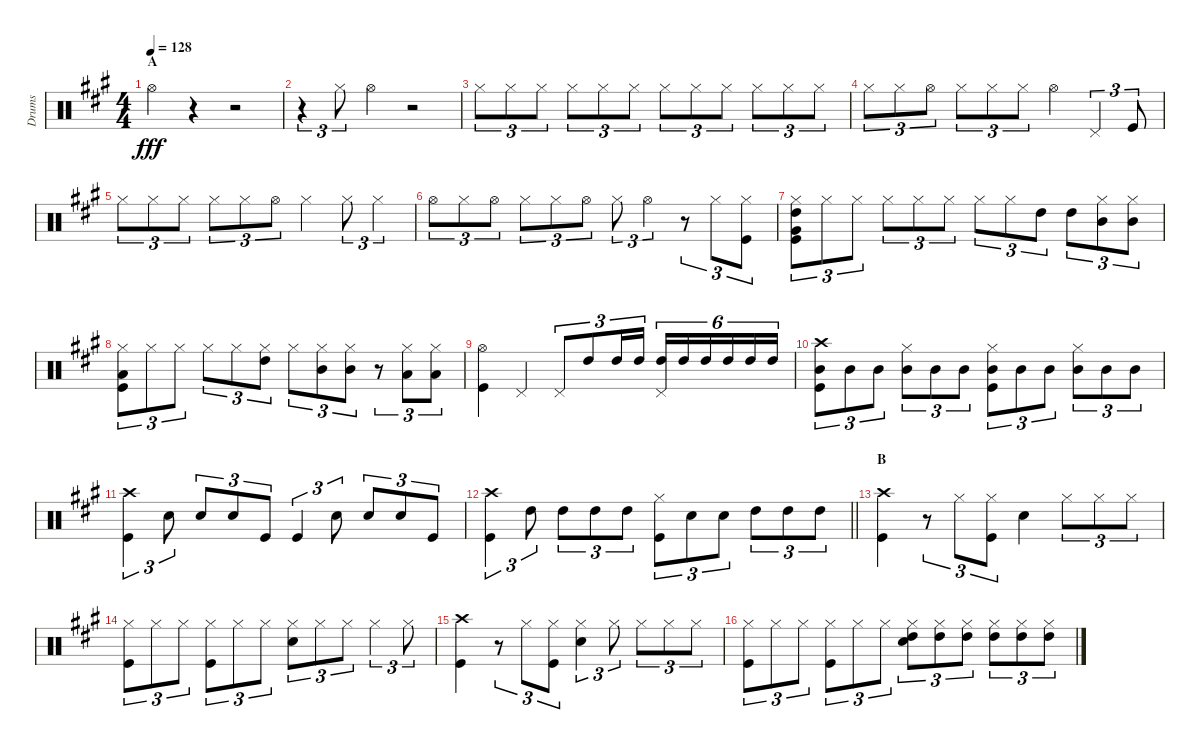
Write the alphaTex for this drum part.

\track ("Drums" "Drums") {instrument percussion}
\staff {score}
\articulation defaults
\ts (4 4)
\section ("" "A")
\tempo 128
\clef neutral
\ks a "Hi-Hat (open)".4{dy fff}
r.4 r.2 |
r.4{tu (3 2)} "Hi-Hat (closed)".8{tu (3 2)} "Hi-Hat (open)".4 r.2 |
"Hi-Hat (closed)".8{tu (3 2)} "Hi-Hat (closed)".8{tu (3 2)} "Hi-Hat (closed)".8{tu (3 2)} "Hi-Hat (closed)".8{tu (3 2)} "Hi-Hat (closed)".8{tu (3 2)} "Hi-Hat (closed)".8{tu (3 2)} "Hi-Hat (closed)".8{tu (3 2)} "Hi-Hat (closed)".8{tu (3 2)} "Hi-Hat (closed)".8{tu (3 2)} "Hi-Hat (closed)".8{tu (3 2)} "Hi-Hat (closed)".8{tu (3 2)} "Hi-Hat (closed)".8{tu (3 2)} |
"Hi-Hat (closed)".8{tu (3 2)} "Hi-Hat (closed)".8{tu (3 2)} "Hi-Hat (open)".8{tu (3 2)} "Hi-Hat (closed)".8{tu (3 2)} "Hi-Hat (closed)".8{tu (3 2)} "Hi-Hat (closed)".8{tu (3 2)} "Hi-Hat (open)".4 "Pedal Hi-Hat (hit)".4{tu (3 2)} "Kick (hit)".8{tu (3 2)} |
"Hi-Hat (closed)".8{tu (3 2)} "Hi-Hat (closed)".8{tu (3 2)} "Hi-Hat (closed)".8{tu (3 2)} "Hi-Hat (closed)".8{tu (3 2)} "Hi-Hat (closed)".8{tu (3 2)} "Hi-Hat (open)".8{tu (3 2)} "Hi-Hat (closed)".4 "Hi-Hat (closed)".8{tu (3 2)} "Hi-Hat (closed)".4{tu (3 2)} |
"Hi-Hat (open)".8{tu (3 2)} "Hi-Hat (closed)".8{tu (3 2)} "Hi-Hat (open)".8{tu (3 2)} "Hi-Hat (closed)".8{tu (3 2)} "Hi-Hat (closed)".8{tu (3 2)} "Hi-Hat (open)".8{tu (3 2)} "Hi-Hat (closed)".8{tu (3 2)} "Hi-Hat (open)".4{tu (3 2)} r.8{tu (3 2)} "Hi-Hat (closed)".8{tu (3 2)} ("Hi-Hat (closed)" "Kick (hit)").8{tu (3 2)} |
("Hi-Hat (closed)" "High Tom (hit)" "Very Low Tom (hit)" "Kick (hit)").8{tu (3 2)} "Hi-Hat (closed)".8{tu (3 2)} "Hi-Hat (closed)".8{tu (3 2)} "Hi-Hat (closed)".8{tu (3 2)} "Hi-Hat (closed)".8{tu (3 2)} "Hi-Hat (closed)".8{tu (3 2)} "Hi-Hat (closed)".8{tu (3 2)} "Hi-Hat (closed)".8{tu (3 2)} "High Tom (hit)".8{tu (3 2)} "High Tom (hit)".8{tu (3 2)} ("Hi-Hat (closed)" "Mid Tom (hit)").8{tu (3 2)} ("Hi-Hat (closed)" "Mid Tom (hit)").8{tu (3 2)} |
("Hi-Hat (closed)" "Low Tom (hit)" "Kick (hit)").8{tu (3 2)} "Hi-Hat (closed)".8{tu (3 2)} "Hi-Hat (closed)".8{tu (3 2)} "Hi-Hat (closed)".8{tu (3 2)} "Hi-Hat (closed)".8{tu (3 2)} ("Hi-Hat (closed)" "High Tom (hit)").8{tu (3 2)} "Hi-Hat (closed)".8{tu (3 2)} ("Hi-Hat (closed)" "Mid Tom (hit)").8{tu (3 2)} ("Hi-Hat (closed)" "Mid Tom (hit)").8{tu (3 2)} r.8{tu (3 2)} ("Hi-Hat (closed)" "Low Tom (hit)").8{tu (3 2)} ("Hi-Hat (closed)" "Low Tom (hit)").8{tu (3 2)} |
("Hi-Hat (open)" "Kick (hit)").4 "Pedal Hi-Hat (hit)".4 "Pedal Hi-Hat (hit)".8{tu (3 2)} "High Tom (hit)".8{tu (3 2)} "High Tom (hit)".16{tu (3 2)} "High Tom (hit)".16{tu (3 2)} ("Pedal Hi-Hat (hit)" "High Tom (hit)").16{tu (6 4)} "High Tom (hit)".16{tu (6 4)} "High Tom (hit)".16{tu (6 4)} "High Tom (hit)".16{tu (6 4)} "High Tom (hit)".16{tu (6 4)} "High Tom (hit)".16{tu (6 4)} |
("Crash high (hit)" "Mid Tom (hit)" "Kick (hit)").8{tu (3 2)} "Mid Tom (hit)".8{tu (3 2)} "Mid Tom (hit)".8{tu (3 2)} ("Hi-Hat (closed)" "Mid Tom (hit)").8{tu (3 2)} "Mid Tom (hit)".8{tu (3 2)} "Mid Tom (hit)".8{tu (3 2)} ("Hi-Hat (closed)" "Mid Tom (hit)" "Kick (hit)").8{tu (3 2)} "Mid Tom (hit)".8{tu (3 2)} "Mid Tom (hit)".8{tu (3 2)} ("Hi-Hat (closed)" "Mid Tom (hit)").8{tu (3 2)} "Mid Tom (hit)".8{tu (3 2)} "Mid Tom (hit)".8{tu (3 2)} |
("Crash high (hit)" "Kick (hit)").4{tu (3 2)} "Snare (hit) 2".8{tu (3 2)} "Snare (hit) 2".8{tu (3 2)} "Snare (hit) 2".8{tu (3 2)} "Kick (hit)".8{tu (3 2)} "Kick (hit)".4{tu (3 2)} "Snare (hit) 2".8{tu (3 2)} "Snare (hit) 2".8{tu (3 2)} "Snare (hit) 2".8{tu (3 2)} "Kick (hit)".8{tu (3 2)} |
\barLineRight lightlight
("Crash high (hit)" "Kick (hit)").4{tu (3 2)} "High Tom (hit)".8{tu (3 2)} "High Tom (hit)".8{tu (3 2)} "High Tom (hit)".8{tu (3 2)} "High Tom (hit)".8{tu (3 2)} ("Hi-Hat (closed)" "Kick (hit)").8{tu (3 2)} "Snare (hit) 2".8{tu (3 2)} "Snare (hit) 2".8{tu (3 2)} "High Tom (hit)".8{tu (3 2)} "High Tom (hit)".8{tu (3 2)} "High Tom (hit)".8{tu (3 2)} |
\section ("" "B")
("Crash high (hit)" "Kick (hit)").4 r.8{tu (3 2)} "Hi-Hat (closed)".8{tu (3 2)} ("Hi-Hat (closed)" "Kick (hit)").8{tu (3 2)} "Snare (hit) 2".4 "Hi-Hat (closed)".8{tu (3 2)} "Hi-Hat (closed)".8{tu (3 2)} "Hi-Hat (closed)".8{tu (3 2)} |
("Hi-Hat (closed)" "Kick (hit)").8{tu (3 2)} "Hi-Hat (closed)".8{tu (3 2)} "Hi-Hat (closed)".8{tu (3 2)} ("Hi-Hat (closed)" "Kick (hit)").8{tu (3 2)} "Hi-Hat (closed)".8{tu (3 2)} "Hi-Hat (closed)".8{tu (3 2)} ("Hi-Hat (closed)" "Snare (hit) 2").8{tu (3 2)} "Hi-Hat (closed)".8{tu (3 2)} "Hi-Hat (closed)".8{tu (3 2)} "Hi-Hat (closed)".4{tu (3 2)} "Hi-Hat (closed)".8{tu (3 2)} |
("Crash high (hit)" "Kick (hit)").4 r.8{tu (3 2)} "Hi-Hat (closed)".8{tu (3 2)} ("Hi-Hat (closed)" "Kick (hit)").8{tu (3 2)} ("Hi-Hat (closed)" "Snare (hit) 2").4{tu (3 2)} "Hi-Hat (closed)".8{tu (3 2)} "Hi-Hat (closed)".8{tu (3 2)} "Hi-Hat (closed)".8{tu (3 2)} "Hi-Hat (closed)".8{tu (3 2)} |
("Hi-Hat (closed)" "Kick (hit)").8{tu (3 2)} "Hi-Hat (closed)".8{tu (3 2)} "Hi-Hat (closed)".8{tu (3 2)} ("Hi-Hat (closed)" "Kick (hit)").8{tu (3 2)} "Hi-Hat (closed)".8{tu (3 2)} "Hi-Hat (closed)".8{tu (3 2)} ("Hi-Hat (closed)" "High Tom (hit)" "Snare (hit) 2").8{tu (3 2)} ("Hi-Hat (closed)" "High Tom (hit)").8{tu (3 2)} ("Hi-Hat (closed)" "High Tom (hit)").8{tu (3 2)} ("Hi-Hat (closed)" "High Tom (hit)").8{tu (3 2)} ("Hi-Hat (closed)" "High Tom (hit)").8{tu (3 2)} ("Hi-Hat (closed)" "High Tom (hit)").8{tu (3 2)}
